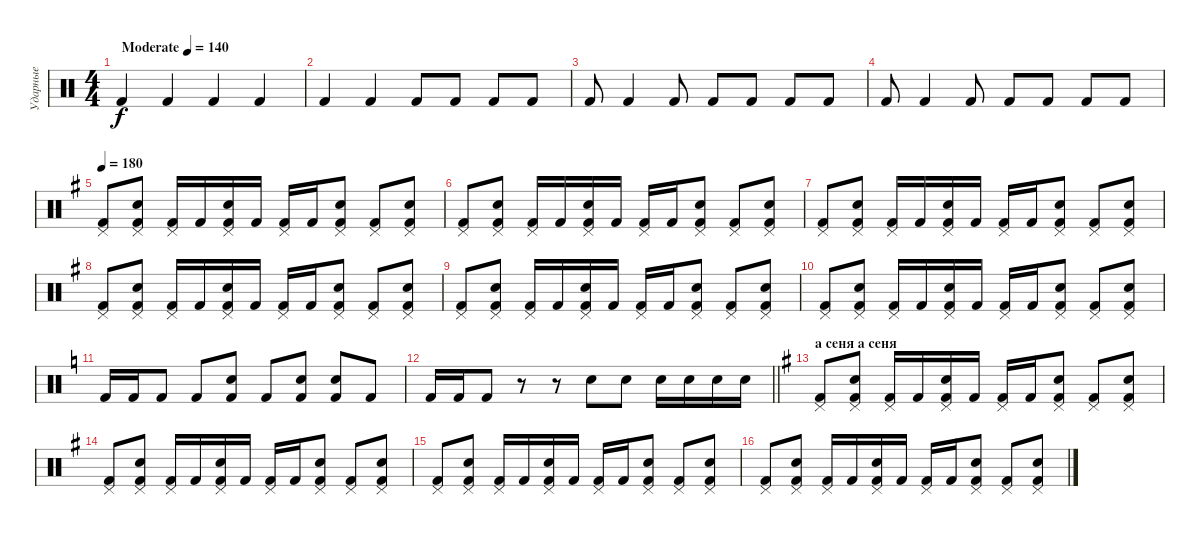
\track ("Ударные" "Ударные") {instrument percussion}
\staff {score}
\articulation defaults
\ts (4 4)
\tempo (140 "Moderate")
\tempo 120
\tempo (140 "Moderate")
\clef neutral
\ks c "Kick (hit) 2".4{dy f} "Kick (hit) 2".4 "Kick (hit) 2".4 "Kick (hit) 2".4
|
"Kick (hit) 2".4 "Kick (hit) 2".4 "Kick (hit) 2".8 "Kick (hit) 2".8 "Kick (hit) 2".8 "Kick (hit) 2".8 |
"Kick (hit) 2".8 "Kick (hit) 2".4 "Kick (hit) 2".8 "Kick (hit) 2".8 "Kick (hit) 2".8 "Kick (hit) 2".8 "Kick (hit) 2".8 |
"Kick (hit) 2".8 "Kick (hit) 2".4 "Kick (hit) 2".8 "Kick (hit) 2".8 "Kick (hit) 2".8 "Kick (hit) 2".8 "Kick (hit) 2".8 |
\tempo 180
\ks g
("Pedal Hi-Hat (hit)" "Kick (hit) 2").8 ("Pedal Hi-Hat (hit)" "Electric Snare (hit)" "Kick (hit) 2").8 ("Pedal Hi-Hat (hit)" "Kick (hit) 2").16 "Kick (hit) 2".16 ("Pedal Hi-Hat (hit)" "Electric Snare (hit)" "Kick (hit) 2").16 "Kick (hit) 2".16 ("Pedal Hi-Hat (hit)" "Kick (hit) 2").16 "Kick (hit) 2".16 ("Pedal Hi-Hat (hit)" "Electric Snare (hit)" "Kick (hit) 2").8 ("Pedal Hi-Hat (hit)" "Kick (hit) 2").8 ("Pedal Hi-Hat (hit)" "Electric Snare (hit)" "Kick (hit) 2").8 |
("Pedal Hi-Hat (hit)" "Kick (hit) 2").8 ("Pedal Hi-Hat (hit)" "Electric Snare (hit)" "Kick (hit) 2").8 ("Pedal Hi-Hat (hit)" "Kick (hit) 2").16 "Kick (hit) 2".16 ("Pedal Hi-Hat (hit)" "Electric Snare (hit)" "Kick (hit) 2").16 "Kick (hit) 2".16 ("Pedal Hi-Hat (hit)" "Kick (hit) 2").16 "Kick (hit) 2".16 ("Pedal Hi-Hat (hit)" "Electric Snare (hit)" "Kick (hit) 2").8 ("Pedal Hi-Hat (hit)" "Kick (hit) 2").8 ("Pedal Hi-Hat (hit)" "Electric Snare (hit)" "Kick (hit) 2").8 |
("Pedal Hi-Hat (hit)" "Kick (hit) 2").8 ("Pedal Hi-Hat (hit)" "Electric Snare (hit)" "Kick (hit) 2").8 ("Pedal Hi-Hat (hit)" "Kick (hit) 2").16 "Kick (hit) 2".16 ("Pedal Hi-Hat (hit)" "Electric Snare (hit)" "Kick (hit) 2").16 "Kick (hit) 2".16 ("Pedal Hi-Hat (hit)" "Kick (hit) 2").16 "Kick (hit) 2".16 ("Pedal Hi-Hat (hit)" "Electric Snare (hit)" "Kick (hit) 2").8 ("Pedal Hi-Hat (hit)" "Kick (hit) 2").8 ("Pedal Hi-Hat (hit)" "Electric Snare (hit)" "Kick (hit) 2").8 |
("Pedal Hi-Hat (hit)" "Kick (hit) 2").8 ("Pedal Hi-Hat (hit)" "Electric Snare (hit)" "Kick (hit) 2").8 ("Pedal Hi-Hat (hit)" "Kick (hit) 2").16 "Kick (hit) 2".16 ("Pedal Hi-Hat (hit)" "Electric Snare (hit)" "Kick (hit) 2").16 "Kick (hit) 2".16 ("Pedal Hi-Hat (hit)" "Kick (hit) 2").16 "Kick (hit) 2".16 ("Pedal Hi-Hat (hit)" "Electric Snare (hit)" "Kick (hit) 2").8 ("Pedal Hi-Hat (hit)" "Kick (hit) 2").8 ("Pedal Hi-Hat (hit)" "Electric Snare (hit)" "Kick (hit) 2").8 |
("Pedal Hi-Hat (hit)" "Kick (hit) 2").8 ("Pedal Hi-Hat (hit)" "Electric Snare (hit)" "Kick (hit) 2").8 ("Pedal Hi-Hat (hit)" "Kick (hit) 2").16 "Kick (hit) 2".16 ("Pedal Hi-Hat (hit)" "Electric Snare (hit)" "Kick (hit) 2").16 "Kick (hit) 2".16 ("Pedal Hi-Hat (hit)" "Kick (hit) 2").16 "Kick (hit) 2".16 ("Pedal Hi-Hat (hit)" "Electric Snare (hit)" "Kick (hit) 2").8 ("Pedal Hi-Hat (hit)" "Kick (hit) 2").8 ("Pedal Hi-Hat (hit)" "Electric Snare (hit)" "Kick (hit) 2").8 |
("Pedal Hi-Hat (hit)" "Kick (hit) 2").8 ("Pedal Hi-Hat (hit)" "Electric Snare (hit)" "Kick (hit) 2").8 ("Pedal Hi-Hat (hit)" "Kick (hit) 2").16 "Kick (hit) 2".16 ("Pedal Hi-Hat (hit)" "Electric Snare (hit)" "Kick (hit) 2").16 "Kick (hit) 2".16 ("Pedal Hi-Hat (hit)" "Kick (hit) 2").16 "Kick (hit) 2".16 ("Pedal Hi-Hat (hit)" "Electric Snare (hit)" "Kick (hit) 2").8 ("Pedal Hi-Hat (hit)" "Kick (hit) 2").8 ("Pedal Hi-Hat (hit)" "Electric Snare (hit)" "Kick (hit) 2").8 |
\ks c "Kick (hit) 2".16 "Kick (hit) 2".16 "Kick (hit) 2".8 "Kick (hit) 2".8
("Electric Snare (hit)" "Kick (hit) 2").8 "Kick (hit) 2".8 ("Electric Snare (hit)" "Kick (hit) 2").8 ("Electric Snare (hit)" "Kick (hit) 2").8 "Kick (hit) 2".8 |
\barLineRight lightlight "Kick (hit) 2".16 "Kick (hit) 2".16 "Kick (hit) 2".8
r.8 r.8 "Electric Snare (hit)".8 "Electric Snare (hit)".8 "Electric Snare (hit)".16 "Electric Snare (hit)".16 "Electric Snare (hit)".16 "Electric Snare (hit)".16 |
\section ("" "а сеня а сеня")
\ks g
("Pedal Hi-Hat (hit)" "Kick (hit) 2").8 ("Pedal Hi-Hat (hit)" "Electric Snare (hit)" "Kick (hit) 2").8 ("Pedal Hi-Hat (hit)" "Kick (hit) 2").16 "Kick (hit) 2".16 ("Pedal Hi-Hat (hit)" "Electric Snare (hit)" "Kick (hit) 2").16 "Kick (hit) 2".16 ("Pedal Hi-Hat (hit)" "Kick (hit) 2").16 "Kick (hit) 2".16 ("Pedal Hi-Hat (hit)" "Electric Snare (hit)" "Kick (hit) 2").8 ("Pedal Hi-Hat (hit)" "Kick (hit) 2").8 ("Pedal Hi-Hat (hit)" "Electric Snare (hit)" "Kick (hit) 2").8 |
("Pedal Hi-Hat (hit)" "Kick (hit) 2").8 ("Pedal Hi-Hat (hit)" "Electric Snare (hit)" "Kick (hit) 2").8 ("Pedal Hi-Hat (hit)" "Kick (hit) 2").16 "Kick (hit) 2".16 ("Pedal Hi-Hat (hit)" "Electric Snare (hit)" "Kick (hit) 2").16 "Kick (hit) 2".16 ("Pedal Hi-Hat (hit)" "Kick (hit) 2").16 "Kick (hit) 2".16 ("Pedal Hi-Hat (hit)" "Electric Snare (hit)" "Kick (hit) 2").8 ("Pedal Hi-Hat (hit)" "Kick (hit) 2").8 ("Pedal Hi-Hat (hit)" "Electric Snare (hit)" "Kick (hit) 2").8 |
("Pedal Hi-Hat (hit)" "Kick (hit) 2").8 ("Pedal Hi-Hat (hit)" "Electric Snare (hit)" "Kick (hit) 2").8 ("Pedal Hi-Hat (hit)" "Kick (hit) 2").16 "Kick (hit) 2".16 ("Pedal Hi-Hat (hit)" "Electric Snare (hit)" "Kick (hit) 2").16 "Kick (hit) 2".16 ("Pedal Hi-Hat (hit)" "Kick (hit) 2").16 "Kick (hit) 2".16 ("Pedal Hi-Hat (hit)" "Electric Snare (hit)" "Kick (hit) 2").8 ("Pedal Hi-Hat (hit)" "Kick (hit) 2").8 ("Pedal Hi-Hat (hit)" "Electric Snare (hit)" "Kick (hit) 2").8 |
("Pedal Hi-Hat (hit)" "Kick (hit) 2").8 ("Pedal Hi-Hat (hit)" "Electric Snare (hit)" "Kick (hit) 2").8 ("Pedal Hi-Hat (hit)" "Kick (hit) 2").16 "Kick (hit) 2".16 ("Pedal Hi-Hat (hit)" "Electric Snare (hit)" "Kick (hit) 2").16 "Kick (hit) 2".16 ("Pedal Hi-Hat (hit)" "Kick (hit) 2").16 "Kick (hit) 2".16 ("Pedal Hi-Hat (hit)" "Electric Snare (hit)" "Kick (hit) 2").8 ("Pedal Hi-Hat (hit)" "Kick (hit) 2").8 ("Pedal Hi-Hat (hit)" "Electric Snare (hit)" "Kick (hit) 2").8
